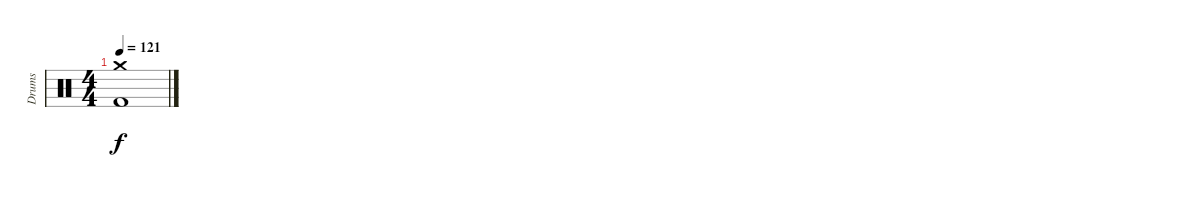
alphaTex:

\track ("Drums" "Drums") {instrument percussion}
\staff {score}
\articulation defaults
\ts (4 4)
\tempo 121
\clef neutral
\ks c
("Crash medium (hit)" "Kick (hit) 2").1{dy f}
